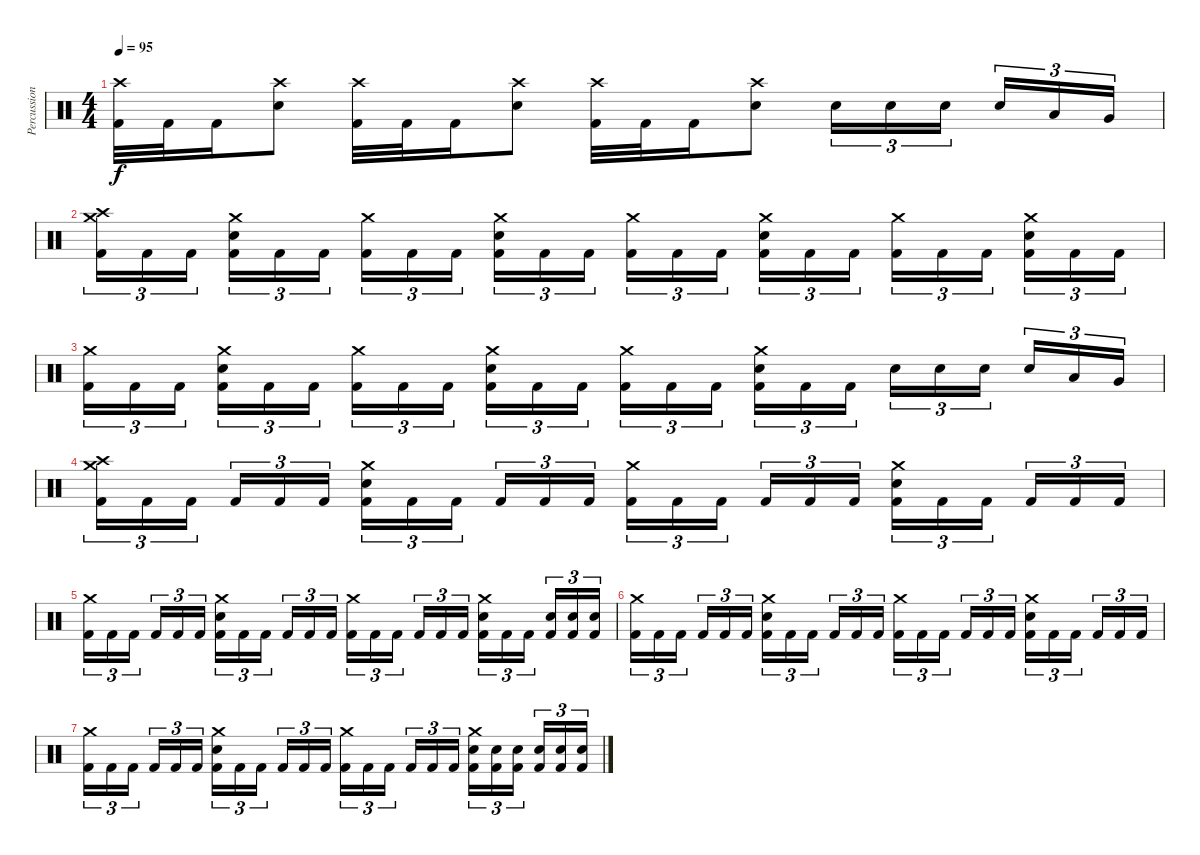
\track ("Percussion" "Percussion") {instrument percussion}
\staff {score}
\articulation defaults
\ts (4 4)
\tempo 95
\clef neutral
\ks c
("Crash high (hit)" "Kick (hit) 2").32{dy f} "Kick (hit) 2".32 "Kick (hit) 2".16 ("Crash high (hit)" "Electric Snare (hit)").8 ("Crash high (hit)" "Kick (hit) 2").32 "Kick (hit) 2".32 "Kick (hit) 2".16 ("Crash high (hit)" "Electric Snare (hit)").8 ("Crash high (hit)" "Kick (hit) 2").32 "Kick (hit) 2".32 "Kick (hit) 2".16 ("Crash high (hit)" "Electric Snare (hit)").8 "Electric Snare (hit)".16{tu (3 2)} "Electric Snare (hit)".16{tu (3 2)} "Electric Snare (hit)".16{tu (3 2) beam splitsecondary} "Electric Snare (hit)".16{tu (3 2)} "Low Tom (hit)".16{tu (3 2)} "Very Low Tom (hit)".16{tu (3 2)} |
("Crash medium (hit)" "Crash high (hit)" "Kick (hit) 2").16{tu (3 2)} "Kick (hit) 2".16{tu (3 2)} "Kick (hit) 2".16{tu (3 2) beam splitsecondary} ("Crash medium (hit)" "Electric Snare (hit)" "Kick (hit) 2").16{tu (3 2)} "Kick (hit) 2".16{tu (3 2)} "Kick (hit) 2".16{tu (3 2)} ("Crash medium (hit)" "Kick (hit) 2").16{tu (3 2)} "Kick (hit) 2".16{tu (3 2)} "Kick (hit) 2".16{tu (3 2) beam splitsecondary} ("Crash medium (hit)" "Electric Snare (hit)" "Kick (hit) 2").16{tu (3 2)} "Kick (hit) 2".16{tu (3 2)} "Kick (hit) 2".16{tu (3 2)} ("Crash medium (hit)" "Kick (hit) 2").16{tu (3 2)} "Kick (hit) 2".16{tu (3 2)} "Kick (hit) 2".16{tu (3 2) beam splitsecondary} ("Crash medium (hit)" "Electric Snare (hit)" "Kick (hit) 2").16{tu (3 2)} "Kick (hit) 2".16{tu (3 2)} "Kick (hit) 2".16{tu (3 2)} ("Crash medium (hit)" "Kick (hit) 2").16{tu (3 2)} "Kick (hit) 2".16{tu (3 2)} "Kick (hit) 2".16{tu (3 2) beam splitsecondary} ("Crash medium (hit)" "Electric Snare (hit)" "Kick (hit) 2").16{tu (3 2)} "Kick (hit) 2".16{tu (3 2)} "Kick (hit) 2".16{tu (3 2)} |
("Crash medium (hit)" "Kick (hit) 2").16{tu (3 2)} "Kick (hit) 2".16{tu (3 2)} "Kick (hit) 2".16{tu (3 2) beam splitsecondary} ("Crash medium (hit)" "Electric Snare (hit)" "Kick (hit) 2").16{tu (3 2)} "Kick (hit) 2".16{tu (3 2)} "Kick (hit) 2".16{tu (3 2)} ("Crash medium (hit)" "Kick (hit) 2").16{tu (3 2)} "Kick (hit) 2".16{tu (3 2)} "Kick (hit) 2".16{tu (3 2) beam splitsecondary} ("Crash medium (hit)" "Electric Snare (hit)" "Kick (hit) 2").16{tu (3 2)} "Kick (hit) 2".16{tu (3 2)} "Kick (hit) 2".16{tu (3 2)} ("Crash medium (hit)" "Kick (hit) 2").16{tu (3 2)} "Kick (hit) 2".16{tu (3 2)} "Kick (hit) 2".16{tu (3 2) beam splitsecondary} ("Crash medium (hit)" "Electric Snare (hit)" "Kick (hit) 2").16{tu (3 2)} "Kick (hit) 2".16{tu (3 2)} "Kick (hit) 2".16{tu (3 2)} "Electric Snare (hit)".16{tu (3 2)} "Electric Snare (hit)".16{tu (3 2)} "Electric Snare (hit)".16{tu (3 2) beam splitsecondary} "Electric Snare (hit)".16{tu (3 2)} "Low Tom (hit)".16{tu (3 2)} "Very Low Tom (hit)".16{tu (3 2)} |
("Crash medium (hit)" "Crash high (hit)" "Kick (hit) 2").16{tu (3 2)} "Kick (hit) 2".16{tu (3 2)} "Kick (hit) 2".16{tu (3 2) beam splitsecondary} "Kick (hit) 2".16{tu (3 2)} "Kick (hit) 2".16{tu (3 2)} "Kick (hit) 2".16{tu (3 2)} ("Crash medium (hit)" "Electric Snare (hit)" "Kick (hit) 2").16{tu (3 2)} "Kick (hit) 2".16{tu (3 2)} "Kick (hit) 2".16{tu (3 2) beam splitsecondary} "Kick (hit) 2".16{tu (3 2)} "Kick (hit) 2".16{tu (3 2)} "Kick (hit) 2".16{tu (3 2)} ("Crash medium (hit)" "Kick (hit) 2").16{tu (3 2)} "Kick (hit) 2".16{tu (3 2)} "Kick (hit) 2".16{tu (3 2) beam splitsecondary} "Kick (hit) 2".16{tu (3 2)} "Kick (hit) 2".16{tu (3 2)} "Kick (hit) 2".16{tu (3 2)} ("Crash medium (hit)" "Electric Snare (hit)" "Kick (hit) 2").16{tu (3 2)} "Kick (hit) 2".16{tu (3 2)} "Kick (hit) 2".16{tu (3 2) beam splitsecondary} "Kick (hit) 2".16{tu (3 2)} "Kick (hit) 2".16{tu (3 2)} "Kick (hit) 2".16{tu (3 2)} |
("Crash medium (hit)" "Kick (hit) 2").16{tu (3 2)} "Kick (hit) 2".16{tu (3 2)} "Kick (hit) 2".16{tu (3 2) beam splitsecondary} "Kick (hit) 2".16{tu (3 2)} "Kick (hit) 2".16{tu (3 2)} "Kick (hit) 2".16{tu (3 2)} ("Crash medium (hit)" "Electric Snare (hit)" "Kick (hit) 2").16{tu (3 2)} "Kick (hit) 2".16{tu (3 2)} "Kick (hit) 2".16{tu (3 2) beam splitsecondary} "Kick (hit) 2".16{tu (3 2)} "Kick (hit) 2".16{tu (3 2)} "Kick (hit) 2".16{tu (3 2)} ("Crash medium (hit)" "Kick (hit) 2").16{tu (3 2)} "Kick (hit) 2".16{tu (3 2)} "Kick (hit) 2".16{tu (3 2) beam splitsecondary} "Kick (hit) 2".16{tu (3 2)} "Kick (hit) 2".16{tu (3 2)} "Kick (hit) 2".16{tu (3 2)} ("Crash medium (hit)" "Electric Snare (hit)" "Kick (hit) 2").16{tu (3 2)} "Kick (hit) 2".16{tu (3 2)} "Kick (hit) 2".16{tu (3 2) beam splitsecondary} ("Electric Snare (hit)" "Kick (hit) 2").16{tu (3 2)} ("Electric Snare (hit)" "Kick (hit) 2").16{tu (3 2)} ("Electric Snare (hit)" "Kick (hit) 2").16{tu (3 2)} |
("Crash medium (hit)" "Kick (hit) 2").16{tu (3 2)} "Kick (hit) 2".16{tu (3 2)} "Kick (hit) 2".16{tu (3 2) beam splitsecondary} "Kick (hit) 2".16{tu (3 2)} "Kick (hit) 2".16{tu (3 2)} "Kick (hit) 2".16{tu (3 2)} ("Crash medium (hit)" "Electric Snare (hit)" "Kick (hit) 2").16{tu (3 2)} "Kick (hit) 2".16{tu (3 2)} "Kick (hit) 2".16{tu (3 2) beam splitsecondary} "Kick (hit) 2".16{tu (3 2)} "Kick (hit) 2".16{tu (3 2)} "Kick (hit) 2".16{tu (3 2)} ("Crash medium (hit)" "Kick (hit) 2").16{tu (3 2)} "Kick (hit) 2".16{tu (3 2)} "Kick (hit) 2".16{tu (3 2) beam splitsecondary} "Kick (hit) 2".16{tu (3 2)} "Kick (hit) 2".16{tu (3 2)} "Kick (hit) 2".16{tu (3 2)} ("Crash medium (hit)" "Electric Snare (hit)" "Kick (hit) 2").16{tu (3 2)} "Kick (hit) 2".16{tu (3 2)} "Kick (hit) 2".16{tu (3 2) beam splitsecondary} "Kick (hit) 2".16{tu (3 2)} "Kick (hit) 2".16{tu (3 2)} "Kick (hit) 2".16{tu (3 2)} |
("Crash medium (hit)" "Kick (hit) 2").16{tu (3 2)} "Kick (hit) 2".16{tu (3 2)} "Kick (hit) 2".16{tu (3 2) beam splitsecondary} "Kick (hit) 2".16{tu (3 2)} "Kick (hit) 2".16{tu (3 2)} "Kick (hit) 2".16{tu (3 2)} ("Crash medium (hit)" "Electric Snare (hit)" "Kick (hit) 2").16{tu (3 2)} "Kick (hit) 2".16{tu (3 2)} "Kick (hit) 2".16{tu (3 2) beam splitsecondary} "Kick (hit) 2".16{tu (3 2)} "Kick (hit) 2".16{tu (3 2)} "Kick (hit) 2".16{tu (3 2)} ("Crash medium (hit)" "Kick (hit) 2").16{tu (3 2)} "Kick (hit) 2".16{tu (3 2)} "Kick (hit) 2".16{tu (3 2) beam splitsecondary} "Kick (hit) 2".16{tu (3 2)} "Kick (hit) 2".16{tu (3 2)} "Kick (hit) 2".16{tu (3 2)} ("Crash medium (hit)" "Electric Snare (hit)" "Kick (hit) 2").16{tu (3 2)} ("Electric Snare (hit)" "Kick (hit) 2").16{tu (3 2)} ("Electric Snare (hit)" "Kick (hit) 2").16{tu (3 2) beam splitsecondary} ("Electric Snare (hit)" "Kick (hit) 2").16{tu (3 2)} ("Electric Snare (hit)" "Kick (hit) 2").16{tu (3 2)} ("Electric Snare (hit)" "Kick (hit) 2").16{tu (3 2)}
